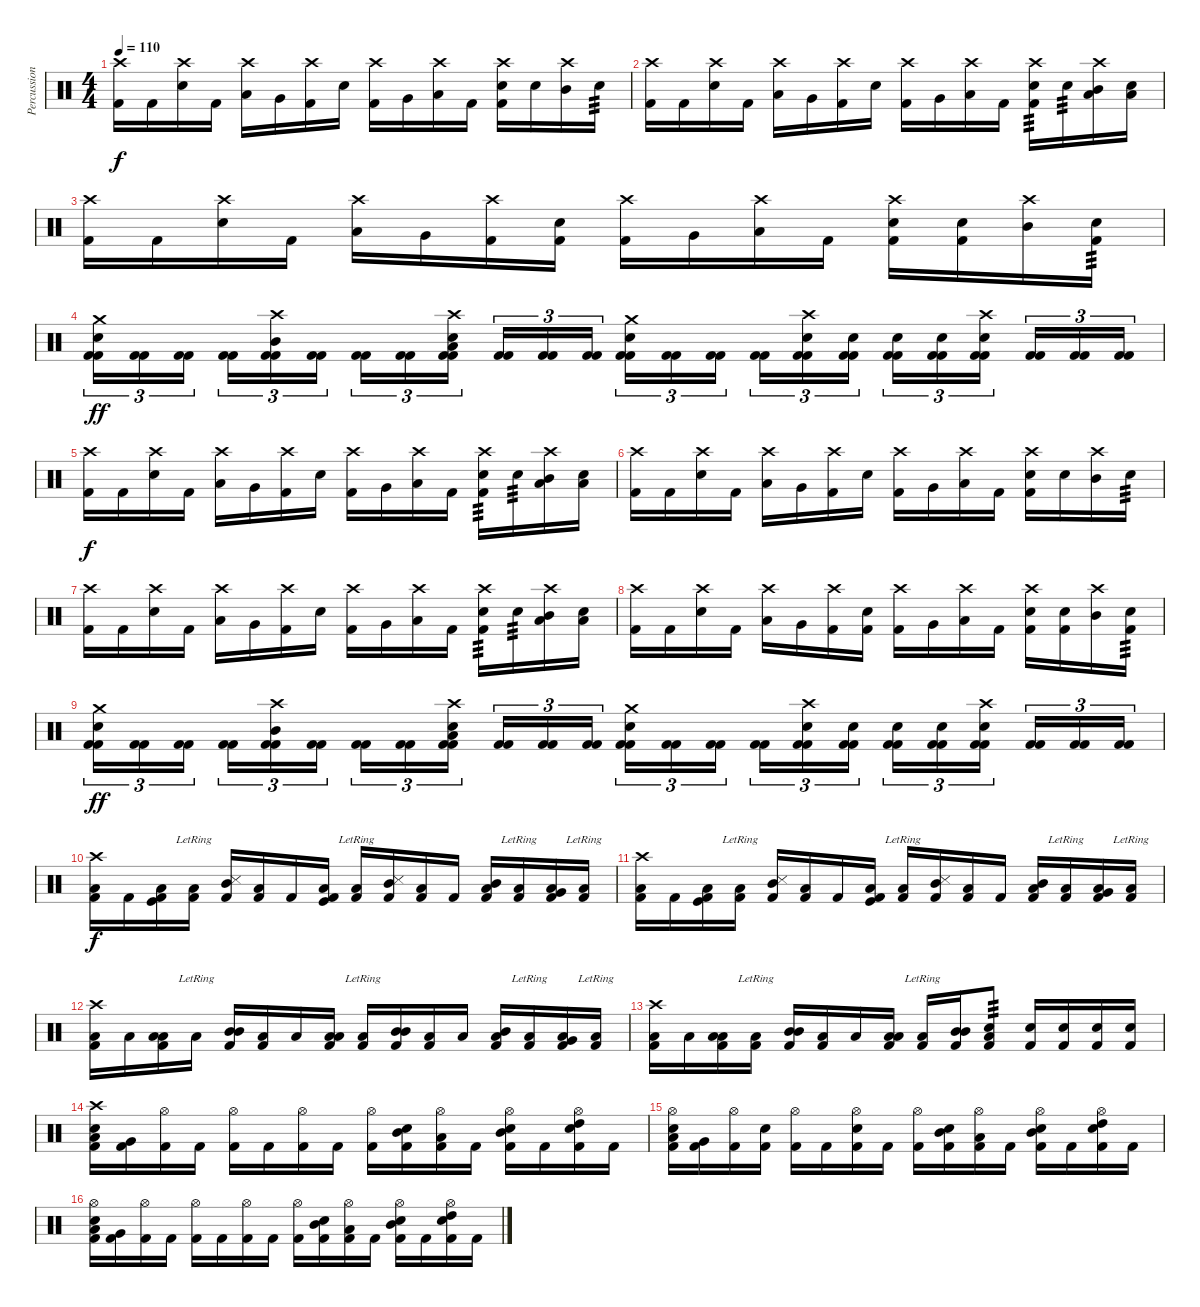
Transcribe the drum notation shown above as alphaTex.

\track ("Percussion" "Percussion") {instrument percussion}
\staff {score}
\articulation defaults
\ts (4 4)
\tempo 110
\clef neutral
\ks c
("Crash high (hit)" "Kick (hit) 2").16{dy f} "Kick (hit) 2".16 ("Crash high (hit)" "Electric Snare (hit)").16 "Kick (hit) 2".16 ("Crash high (hit)" "Low Tom (hit)").16 "Very Low Tom (hit)".16 ("Crash high (hit)" "Kick (hit) 2").16 "Electric Snare (hit)".16 ("Crash high (hit)" "Kick (hit) 2").16 "Very Low Tom (hit)".16 ("Crash high (hit)" "Low Floor Tom (hit)").16 "Kick (hit) 2".16 ("Crash high (hit)" "Electric Snare (hit)" "Kick (hit) 2").16 "Electric Snare (hit)".16 ("Crash high (hit)" "Mid Tom (hit)").16 "Electric Snare (hit)".16{tp 3} |
("Crash high (hit)" "Kick (hit) 2").16 "Kick (hit) 2".16 ("Crash high (hit)" "Electric Snare (hit)").16 "Kick (hit) 2".16 ("Crash high (hit)" "Low Tom (hit)").16 "Very Low Tom (hit)".16 ("Crash high (hit)" "Kick (hit) 2").16 "Electric Snare (hit)".16 ("Crash high (hit)" "Kick (hit) 2").16 "Very Low Tom (hit)".16 ("Crash high (hit)" "Low Floor Tom (hit)").16 "Kick (hit) 2".16 ("Crash high (hit)" "Electric Snare (hit)" "Kick (hit) 2").16{tp 3} "Electric Snare (hit)".16{tp 3} ("Crash high (hit)" "Low Tom (hit)" "Mid Tom (hit)").16 ("Electric Snare (hit)" "Low Tom (hit)").16 |
("Crash high (hit)" "Kick (hit) 2").16 "Kick (hit) 2".16 ("Crash high (hit)" "Electric Snare (hit)").16 "Kick (hit) 2".16 ("Crash high (hit)" "Low Tom (hit)").16 "Very Low Tom (hit)".16 ("Crash high (hit)" "Kick (hit) 2").16 ("Electric Snare (hit)" "Kick (hit) 2").16 ("Crash high (hit)" "Kick (hit) 2").16 "Very Low Tom (hit)".16 ("Crash high (hit)" "Low Floor Tom (hit)").16 "Kick (hit) 2".16 ("Crash high (hit)" "Electric Snare (hit)" "Kick (hit) 2").16 ("Electric Snare (hit)" "Kick (hit) 2").16 ("Crash high (hit)" "Mid Tom (hit)").16 ("Electric Snare (hit)" "Kick (hit) 2").16{tp 3} |
("Crash medium (hit)" "Electric Snare (hit)" "Kick (hit) 2" "Kick (hit) 2").16{tu (3 2) dy ff} ("Kick (hit) 2" "Kick (hit) 2").16{tu (3 2)} ("Kick (hit) 2" "Kick (hit) 2").16{tu (3 2)} ("Kick (hit) 2" "Kick (hit) 2").16{tu (3 2)} ("Crash high (hit)" "Kick (hit) 2" "Mid Tom (hit)" "Kick (hit) 2").16{tu (3 2)} ("Kick (hit) 2" "Kick (hit) 2").16{tu (3 2)} ("Kick (hit) 2" "Kick (hit) 2").16{tu (3 2)} ("Kick (hit) 2" "Kick (hit) 2").16{tu (3 2)} ("Crash high (hit)" "Electric Snare (hit)" "Kick (hit) 2" "Low Tom (hit)" "Kick (hit) 2").16{tu (3 2)} ("Kick (hit) 2" "Kick (hit) 2").16{tu (3 2)} ("Kick (hit) 2" "Kick (hit) 2").16{tu (3 2)} ("Kick (hit) 2" "Kick (hit) 2").16{tu (3 2)} ("Crash medium (hit)" "Electric Snare (hit)" "Kick (hit) 2" "Kick (hit) 2").16{tu (3 2)} ("Kick (hit) 2" "Kick (hit) 2").16{tu (3 2)} ("Kick (hit) 2" "Kick (hit) 2").16{tu (3 2)} ("Kick (hit) 2" "Kick (hit) 2").16{tu (3 2)} ("Crash high (hit)" "Electric Snare (hit)" "Kick (hit) 2" "Kick (hit) 2").16{tu (3 2)} ("Electric Snare (hit)" "Kick (hit) 2" "Kick (hit) 2").16{tu (3 2)} ("Electric Snare (hit)" "Kick (hit) 2" "Kick (hit) 2").16{tu (3 2)} ("Electric Snare (hit)" "Kick (hit) 2" "Kick (hit) 2").16{tu (3 2)} ("Crash high (hit)" "Electric Snare (hit)" "Kick (hit) 2" "Kick (hit) 2").16{tu (3 2)} ("Kick (hit) 2" "Kick (hit) 2").16{tu (3 2)} ("Kick (hit) 2" "Kick (hit) 2").16{tu (3 2)} ("Kick (hit) 2" "Kick (hit) 2").16{tu (3 2)} |
("Crash high (hit)" "Kick (hit) 2").16{dy f} "Kick (hit) 2".16 ("Crash high (hit)" "Electric Snare (hit)").16 "Kick (hit) 2".16 ("Crash high (hit)" "Low Tom (hit)").16 "Very Low Tom (hit)".16 ("Crash high (hit)" "Kick (hit) 2").16 "Electric Snare (hit)".16 ("Crash high (hit)" "Kick (hit) 2").16 "Very Low Tom (hit)".16 ("Crash high (hit)" "Low Floor Tom (hit)").16 "Kick (hit) 2".16 ("Crash high (hit)" "Electric Snare (hit)" "Kick (hit) 2").16{tp 3} "Electric Snare (hit)".16{tp 3} ("Crash high (hit)" "Low Tom (hit)" "Mid Tom (hit)").16 ("Electric Snare (hit)" "Low Tom (hit)").16 |
("Crash high (hit)" "Kick (hit) 2").16 "Kick (hit) 2".16 ("Crash high (hit)" "Electric Snare (hit)").16 "Kick (hit) 2".16 ("Crash high (hit)" "Low Tom (hit)").16 "Very Low Tom (hit)".16 ("Crash high (hit)" "Kick (hit) 2").16 "Electric Snare (hit)".16 ("Crash high (hit)" "Kick (hit) 2").16 "Very Low Tom (hit)".16 ("Crash high (hit)" "Low Floor Tom (hit)").16 "Kick (hit) 2".16 ("Crash high (hit)" "Electric Snare (hit)" "Kick (hit) 2").16 "Electric Snare (hit)".16 ("Crash high (hit)" "Mid Tom (hit)").16 "Electric Snare (hit)".16{tp 3} |
("Crash high (hit)" "Kick (hit) 2").16 "Kick (hit) 2".16 ("Crash high (hit)" "Electric Snare (hit)").16 "Kick (hit) 2".16 ("Crash high (hit)" "Low Tom (hit)").16 "Very Low Tom (hit)".16 ("Crash high (hit)" "Kick (hit) 2").16 "Electric Snare (hit)".16 ("Crash high (hit)" "Kick (hit) 2").16 "Very Low Tom (hit)".16 ("Crash high (hit)" "Low Floor Tom (hit)").16 "Kick (hit) 2".16 ("Crash high (hit)" "Electric Snare (hit)" "Kick (hit) 2").16{tp 3} "Electric Snare (hit)".16{tp 3} ("Crash high (hit)" "Low Tom (hit)" "Mid Tom (hit)").16 ("Electric Snare (hit)" "Low Tom (hit)").16 |
("Crash high (hit)" "Kick (hit) 2").16 "Kick (hit) 2".16 ("Crash high (hit)" "Electric Snare (hit)").16 "Kick (hit) 2".16 ("Crash high (hit)" "Low Tom (hit)").16 "Very Low Tom (hit)".16 ("Crash high (hit)" "Kick (hit) 2").16 ("Electric Snare (hit)" "Kick (hit) 2").16 ("Crash high (hit)" "Kick (hit) 2").16 "Very Low Tom (hit)".16 ("Crash high (hit)" "Low Floor Tom (hit)").16 "Kick (hit) 2".16 ("Crash high (hit)" "Electric Snare (hit)" "Kick (hit) 2").16 ("Electric Snare (hit)" "Kick (hit) 2").16 ("Crash high (hit)" "Mid Tom (hit)").16 ("Electric Snare (hit)" "Kick (hit) 2").16{tp 3} |
("Crash medium (hit)" "Electric Snare (hit)" "Kick (hit) 2" "Kick (hit) 2").16{tu (3 2) dy ff} ("Kick (hit) 2" "Kick (hit) 2").16{tu (3 2)} ("Kick (hit) 2" "Kick (hit) 2").16{tu (3 2)} ("Kick (hit) 2" "Kick (hit) 2").16{tu (3 2)} ("Crash high (hit)" "Kick (hit) 2" "Mid Tom (hit)" "Kick (hit) 2").16{tu (3 2)} ("Kick (hit) 2" "Kick (hit) 2").16{tu (3 2)} ("Kick (hit) 2" "Kick (hit) 2").16{tu (3 2)} ("Kick (hit) 2" "Kick (hit) 2").16{tu (3 2)} ("Crash high (hit)" "Electric Snare (hit)" "Kick (hit) 2" "Low Tom (hit)" "Kick (hit) 2").16{tu (3 2)} ("Kick (hit) 2" "Kick (hit) 2").16{tu (3 2)} ("Kick (hit) 2" "Kick (hit) 2").16{tu (3 2)} ("Kick (hit) 2" "Kick (hit) 2").16{tu (3 2)} ("Crash medium (hit)" "Electric Snare (hit)" "Kick (hit) 2" "Kick (hit) 2").16{tu (3 2)} ("Kick (hit) 2" "Kick (hit) 2").16{tu (3 2)} ("Kick (hit) 2" "Kick (hit) 2").16{tu (3 2)} ("Kick (hit) 2" "Kick (hit) 2").16{tu (3 2)} ("Crash high (hit)" "Electric Snare (hit)" "Kick (hit) 2" "Kick (hit) 2").16{tu (3 2)} ("Electric Snare (hit)" "Kick (hit) 2" "Kick (hit) 2").16{tu (3 2)} ("Electric Snare (hit)" "Kick (hit) 2" "Kick (hit) 2").16{tu (3 2)} ("Electric Snare (hit)" "Kick (hit) 2" "Kick (hit) 2").16{tu (3 2)} ("Crash high (hit)" "Electric Snare (hit)" "Kick (hit) 2" "Kick (hit) 2").16{tu (3 2)} ("Kick (hit) 2" "Kick (hit) 2").16{tu (3 2)} ("Kick (hit) 2" "Kick (hit) 2").16{tu (3 2)} ("Kick (hit) 2" "Kick (hit) 2").16{tu (3 2)} |
("Crash high (hit)" "Low Floor Tom (hit)" "Kick (hit) 2").16{dy f} "Kick (hit) 2".16 ("Low Tom (hit)" "Kick (hit)" "Kick (hit) 2").16 ("Low Floor Tom (hit)"{lr} "Kick (hit) 2").16 ("Mid Tom (hit)" "Snare (side stick) 3" "Kick (hit) 2").16 ("Low Floor Tom (hit)" "Kick (hit) 2").16 "Kick (hit) 2".16 ("Low Tom (hit)" "Kick (hit)" "Kick (hit) 2").16 ("Low Floor Tom (hit)"{lr} "Kick (hit) 2").16 ("Mid Tom (hit)" "Snare (side stick) 3" "Kick (hit) 2").16 ("Low Floor Tom (hit)" "Kick (hit) 2").16 "Kick (hit) 2".16 ("Mid Tom (hit)" "Low Tom (hit)" "Kick (hit) 2").16 ("Low Floor Tom (hit)"{lr} "Kick (hit) 2").16 ("Low Tom (hit)" "Very Low Tom (hit)" "Kick (hit) 2").16 ("Low Floor Tom (hit)"{lr} "Kick (hit) 2").16 |
("Crash high (hit)" "Low Floor Tom (hit)" "Kick (hit) 2").16 "Kick (hit) 2".16 ("Low Tom (hit)" "Kick (hit)" "Kick (hit) 2").16 ("Low Floor Tom (hit)"{lr} "Kick (hit) 2").16 ("Mid Tom (hit)" "Snare (side stick) 3" "Kick (hit) 2").16 ("Low Floor Tom (hit)" "Kick (hit) 2").16 "Kick (hit) 2".16 ("Low Tom (hit)" "Kick (hit)" "Kick (hit) 2").16 ("Low Floor Tom (hit)"{lr} "Kick (hit) 2").16 ("Mid Tom (hit)" "Snare (side stick) 3" "Kick (hit) 2").16 ("Low Floor Tom (hit)" "Kick (hit) 2").16 "Kick (hit) 2".16 ("Mid Tom (hit)" "Low Tom (hit)" "Kick (hit) 2").16 ("Low Floor Tom (hit)"{lr} "Kick (hit) 2").16 ("Low Tom (hit)" "Very Low Tom (hit)" "Kick (hit) 2").16 ("Low Floor Tom (hit)"{lr} "Kick (hit) 2").16 |
("Crash high (hit)" "Low Floor Tom (hit)" "Kick (hit) 2").16 "Low Floor Tom (hit)".16 ("Low Tom (hit)" "Low Tom (hit)" "Kick (hit) 2").16 "Low Floor Tom (hit)"{lr}.16 ("Mid Tom (hit)" "Mid Tom (hit)" "Kick (hit) 2").16 ("Low Floor Tom (hit)" "Kick (hit) 2").16 "Low Floor Tom (hit)".16 ("Low Tom (hit)" "Low Tom (hit)" "Kick (hit) 2").16 ("Low Floor Tom (hit)"{lr} "Kick (hit) 2").16 ("Mid Tom (hit)" "Mid Tom (hit)" "Kick (hit) 2").16 ("Low Floor Tom (hit)" "Kick (hit) 2").16 "Low Floor Tom (hit)".16 ("Mid Tom (hit)" "Low Tom (hit)" "Kick (hit) 2").16 ("Low Floor Tom (hit)"{lr} "Kick (hit) 2").16 ("Low Tom (hit)" "Very Low Tom (hit)" "Kick (hit) 2").16 ("Low Floor Tom (hit)"{lr} "Kick (hit) 2").16 |
("Crash high (hit)" "Low Floor Tom (hit)" "Kick (hit) 2").16 "Low Floor Tom (hit)".16 ("Low Tom (hit)" "Low Tom (hit)" "Kick (hit) 2").16 ("Low Floor Tom (hit)"{lr} "Kick (hit) 2").16 ("Mid Tom (hit)" "Mid Tom (hit)" "Kick (hit) 2").16 ("Low Floor Tom (hit)" "Kick (hit) 2").16 "Low Floor Tom (hit)".16 ("Low Tom (hit)" "Low Tom (hit)" "Kick (hit) 2").16 ("Low Floor Tom (hit)"{lr} "Kick (hit) 2").16 ("Mid Tom (hit)" "Mid Tom (hit)" "Kick (hit) 2").16 ("Electric Snare (hit)" "Low Floor Tom (hit)" "Kick (hit) 2").8{tp 3} ("Electric Snare (hit)" "Kick (hit) 2").16 ("Electric Snare (hit)" "Kick (hit) 2").16 ("Electric Snare (hit)" "Kick (hit) 2").16 ("Electric Snare (hit)" "Kick (hit) 2").16 |
("Crash high (hit)" "Electric Snare (hit)" "Low Tom (hit)" "Kick (hit) 2").16 ("Very Low Tom (hit)" "Kick (hit) 2").16 ("Hi-Hat (open)" "Kick (hit) 2").16 "Kick (hit) 2".16 ("Hi-Hat (open)" "Kick (hit) 2").16 "Kick (hit) 2".16 ("Hi-Hat (open)" "Kick (hit) 2").16 "Kick (hit) 2".16 ("Hi-Hat (open)" "Kick (hit) 2").16 ("Electric Snare (hit)" "Mid Tom (hit)" "Kick (hit) 2").16 ("Hi-Hat (open)" "Low Tom (hit)" "Kick (hit) 2").16 "Kick (hit) 2".16 ("Hi-Hat (open)" "Electric Snare (hit)" "Mid Tom (hit)" "Kick (hit) 2").16 "Kick (hit) 2".16 ("Hi-Hat (open)" "Electric Snare (hit)" "High Tom (hit)" "Kick (hit) 2").16 "Kick (hit) 2".16 |
("Hi-Hat (open)" "Electric Snare (hit)" "Low Tom (hit)" "Kick (hit) 2").16 ("Very Low Tom (hit)" "Kick (hit) 2").16 ("Hi-Hat (open)" "Kick (hit) 2").16 ("Electric Snare (hit)" "Kick (hit) 2").16 ("Hi-Hat (open)" "Kick (hit) 2").16 "Kick (hit) 2".16 ("Hi-Hat (open)" "Electric Snare (hit)" "Kick (hit) 2").16 "Kick (hit) 2".16 ("Hi-Hat (open)" "Kick (hit) 2").16 ("Electric Snare (hit)" "Mid Tom (hit)" "Kick (hit) 2").16 ("Hi-Hat (open)" "Low Tom (hit)" "Kick (hit) 2").16 "Kick (hit) 2".16 ("Hi-Hat (open)" "Electric Snare (hit)" "Mid Tom (hit)" "Kick (hit) 2").16 "Kick (hit) 2".16 ("Hi-Hat (open)" "Electric Snare (hit)" "High Tom (hit)" "Kick (hit) 2").16 "Kick (hit) 2".16 |
("Hi-Hat (open)" "Electric Snare (hit)" "Low Tom (hit)" "Kick (hit) 2").16 ("Very Low Tom (hit)" "Kick (hit) 2").16 ("Hi-Hat (open)" "Kick (hit) 2").16 "Kick (hit) 2".16 ("Hi-Hat (open)" "Kick (hit) 2").16 "Kick (hit) 2".16 ("Hi-Hat (open)" "Kick (hit) 2").16 "Kick (hit) 2".16 ("Hi-Hat (open)" "Kick (hit) 2").16 ("Electric Snare (hit)" "Mid Tom (hit)" "Kick (hit) 2").16 ("Hi-Hat (open)" "Low Tom (hit)" "Kick (hit) 2").16 "Kick (hit) 2".16 ("Hi-Hat (open)" "Electric Snare (hit)" "Mid Tom (hit)" "Kick (hit) 2").16 "Kick (hit) 2".16 ("Hi-Hat (open)" "Electric Snare (hit)" "High Tom (hit)" "Kick (hit) 2").16 "Kick (hit) 2".16
